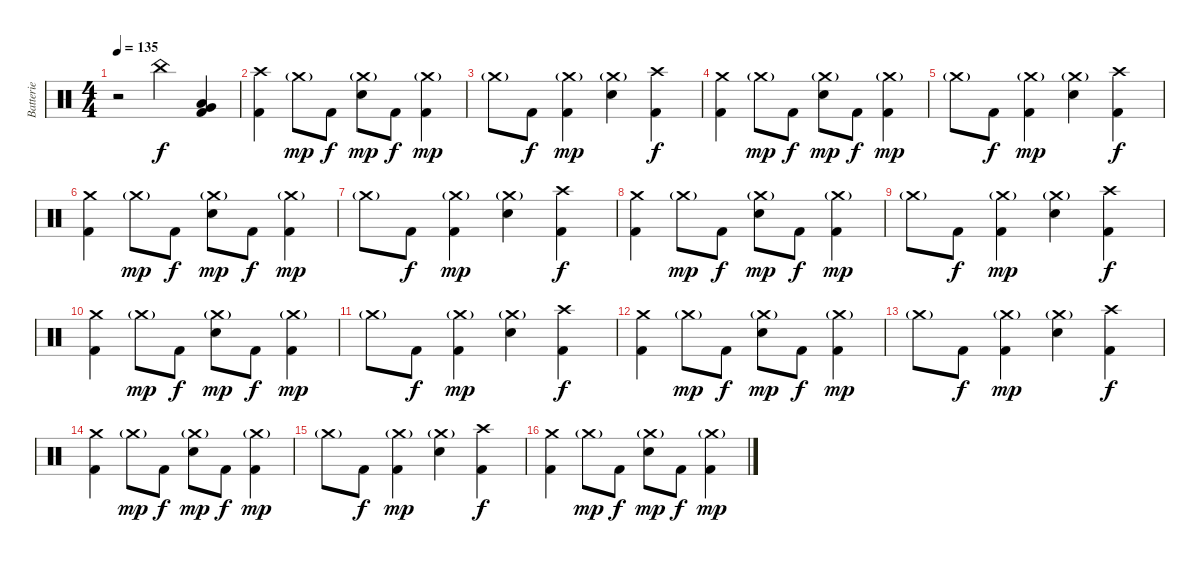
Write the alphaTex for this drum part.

\track ("Batterie" "Batterie") {instrument percussion}
\staff {score}
\articulation defaults
\ts (4 4)
\tempo 135
\clef neutral
\ks c
r.2{dy f} "China (hit)".4 ("Very Low Tom (hit)" "Low Floor Tom (hit)" "Kick (hit) 2").4 |
("Crash high (hit)" "Kick (hit) 2").4 "Crash medium (hit)"{g}.8{dy mp} "Kick (hit) 2".8{dy f} ("Crash medium (hit)"{g} "Electric Snare (hit)").8{dy mp} "Kick (hit) 2".8{dy f} ("Crash medium (hit)"{g} "Kick (hit) 2").4{dy mp} |
"Crash medium (hit)"{g}.8 "Kick (hit) 2".8{dy f} ("Crash medium (hit)"{g} "Kick (hit) 2").4{dy mp} ("Crash medium (hit)"{g} "Electric Snare (hit)").4 ("Crash high (hit)" "Kick (hit) 2").4{dy f} |
("Crash medium (hit)" "Kick (hit) 2").4 "Crash medium (hit)"{g}.8{dy mp} "Kick (hit) 2".8{dy f} ("Crash medium (hit)"{g} "Electric Snare (hit)").8{dy mp} "Kick (hit) 2".8{dy f} ("Crash medium (hit)"{g} "Kick (hit) 2").4{dy mp} |
"Crash medium (hit)"{g}.8 "Kick (hit) 2".8{dy f} ("Crash medium (hit)"{g} "Kick (hit) 2").4{dy mp} ("Crash medium (hit)"{g} "Electric Snare (hit)").4 ("Crash high (hit)" "Kick (hit) 2").4{dy f} |
("Crash medium (hit)" "Kick (hit) 2").4 "Crash medium (hit)"{g}.8{dy mp} "Kick (hit) 2".8{dy f} ("Crash medium (hit)"{g} "Electric Snare (hit)").8{dy mp} "Kick (hit) 2".8{dy f} ("Crash medium (hit)"{g} "Kick (hit) 2").4{dy mp} |
"Crash medium (hit)"{g}.8 "Kick (hit) 2".8{dy f} ("Crash medium (hit)"{g} "Kick (hit) 2").4{dy mp} ("Crash medium (hit)"{g} "Electric Snare (hit)").4 ("Crash high (hit)" "Kick (hit) 2").4{dy f} |
("Crash medium (hit)" "Kick (hit) 2").4 "Crash medium (hit)"{g}.8{dy mp} "Kick (hit) 2".8{dy f} ("Crash medium (hit)"{g} "Electric Snare (hit)").8{dy mp} "Kick (hit) 2".8{dy f} ("Crash medium (hit)"{g} "Kick (hit) 2").4{dy mp} |
"Crash medium (hit)"{g}.8 "Kick (hit) 2".8{dy f} ("Crash medium (hit)"{g} "Kick (hit) 2").4{dy mp} ("Crash medium (hit)"{g} "Electric Snare (hit)").4 ("Crash high (hit)" "Kick (hit) 2").4{dy f} |
("Crash medium (hit)" "Kick (hit) 2").4 "Crash medium (hit)"{g}.8{dy mp} "Kick (hit) 2".8{dy f} ("Crash medium (hit)"{g} "Electric Snare (hit)").8{dy mp} "Kick (hit) 2".8{dy f} ("Crash medium (hit)"{g} "Kick (hit) 2").4{dy mp} |
"Crash medium (hit)"{g}.8 "Kick (hit) 2".8{dy f} ("Crash medium (hit)"{g} "Kick (hit) 2").4{dy mp} ("Crash medium (hit)"{g} "Electric Snare (hit)").4 ("Crash high (hit)" "Kick (hit) 2").4{dy f} |
("Crash medium (hit)" "Kick (hit) 2").4 "Crash medium (hit)"{g}.8{dy mp} "Kick (hit) 2".8{dy f} ("Crash medium (hit)"{g} "Electric Snare (hit)").8{dy mp} "Kick (hit) 2".8{dy f} ("Crash medium (hit)"{g} "Kick (hit) 2").4{dy mp} |
"Crash medium (hit)"{g}.8 "Kick (hit) 2".8{dy f} ("Crash medium (hit)"{g} "Kick (hit) 2").4{dy mp} ("Crash medium (hit)"{g} "Electric Snare (hit)").4 ("Crash high (hit)" "Kick (hit) 2").4{dy f} |
("Crash medium (hit)" "Kick (hit) 2").4 "Crash medium (hit)"{g}.8{dy mp} "Kick (hit) 2".8{dy f} ("Crash medium (hit)"{g} "Electric Snare (hit)").8{dy mp} "Kick (hit) 2".8{dy f} ("Crash medium (hit)"{g} "Kick (hit) 2").4{dy mp} |
"Crash medium (hit)"{g}.8 "Kick (hit) 2".8{dy f} ("Crash medium (hit)"{g} "Kick (hit) 2").4{dy mp} ("Crash medium (hit)"{g} "Electric Snare (hit)").4 ("Crash high (hit)" "Kick (hit) 2").4{dy f} |
("Crash medium (hit)" "Kick (hit) 2").4 "Crash medium (hit)"{g}.8{dy mp} "Kick (hit) 2".8{dy f} ("Crash medium (hit)"{g} "Electric Snare (hit)").8{dy mp} "Kick (hit) 2".8{dy f} ("Crash medium (hit)"{g} "Kick (hit) 2").4{dy mp}
